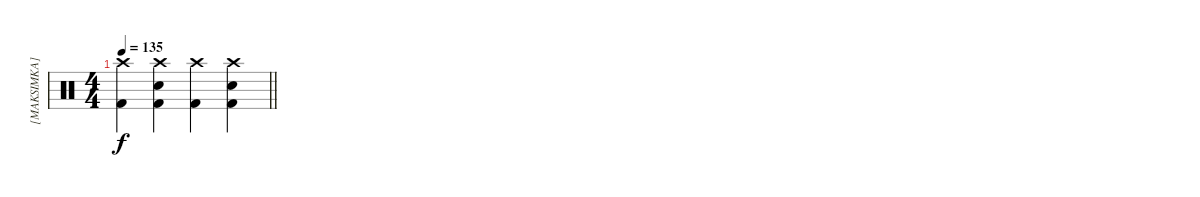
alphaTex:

\track ("[MAKSIMKA]" "[MAKSIMKA]") {instrument percussion}
\staff {score}
\articulation defaults
\ts (4 4)
\tempo 135
\clef neutral
\barLineRight lightlight
\ks c
("Crash high (hit)" "Kick (hit) 2").4{dy f} ("Crash high (hit)" "Kick (hit) 2" "Snare (hit) 2").4 ("Crash high (hit)" "Kick (hit) 2").4 ("Crash high (hit)" "Kick (hit) 2" "Snare (hit) 2").4
